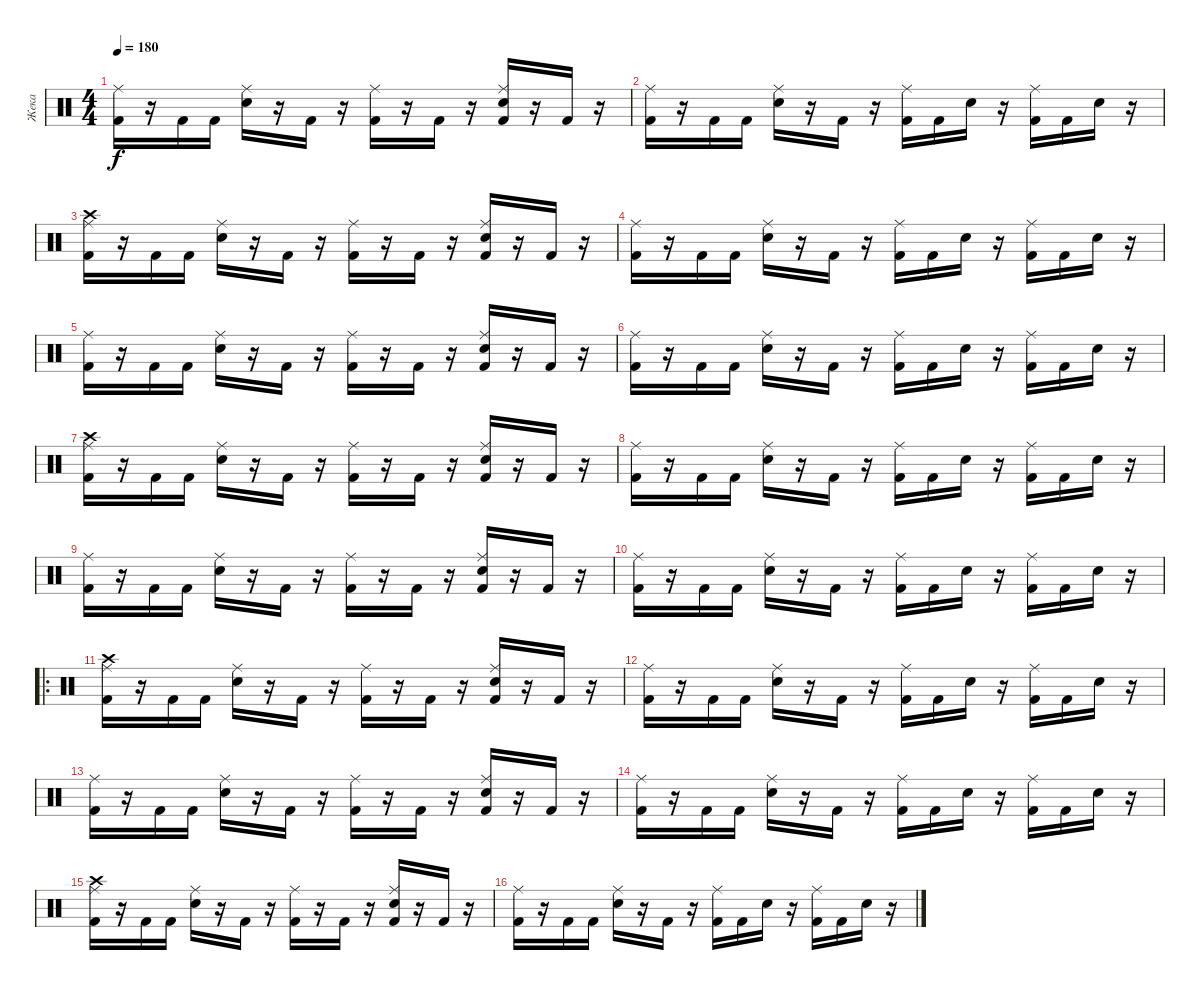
\track ("Жека" "Жека") {instrument percussion}
\staff {score}
\articulation defaults
\ts (4 4)
\tempo 180
\clef neutral
\ks c
("Kick (hit) 2" "Ride (middle)").16{dy f} r.16 "Kick (hit) 2".16 "Kick (hit) 2".16 ("Ride (middle)" "Snare (hit) 2").16 r.16 "Kick (hit) 2".16 r.16 ("Kick (hit) 2" "Ride (middle)").16 r.16 "Kick (hit) 2".16 r.16 ("Kick (hit) 2" "Ride (middle)" "Snare (hit) 2").16 r.16 "Kick (hit) 2".16 r.16 |
("Kick (hit) 2" "Ride (middle)").16 r.16 "Kick (hit) 2".16 "Kick (hit) 2".16 ("Ride (middle)" "Snare (hit) 2").16 r.16 "Kick (hit) 2".16 r.16 ("Kick (hit) 2" "Ride (middle)").16 "Kick (hit) 2".16 "Snare (hit) 2".16 r.16 ("Kick (hit) 2" "Ride (middle)").16 "Kick (hit) 2".16 "Snare (hit) 2".16 r.16 |
("Kick (hit) 2" "Ride (middle)" "Crash high (hit)").16 r.16 "Kick (hit) 2".16 "Kick (hit) 2".16 ("Ride (middle)" "Snare (hit) 2").16 r.16 "Kick (hit) 2".16 r.16 ("Kick (hit) 2" "Ride (middle)").16 r.16 "Kick (hit) 2".16 r.16 ("Kick (hit) 2" "Ride (middle)" "Snare (hit) 2").16 r.16 "Kick (hit) 2".16 r.16 |
("Kick (hit) 2" "Ride (middle)").16 r.16 "Kick (hit) 2".16 "Kick (hit) 2".16 ("Ride (middle)" "Snare (hit) 2").16 r.16 "Kick (hit) 2".16 r.16 ("Kick (hit) 2" "Ride (middle)").16 "Kick (hit) 2".16 "Snare (hit) 2".16 r.16 ("Kick (hit) 2" "Ride (middle)").16 "Kick (hit) 2".16 "Snare (hit) 2".16 r.16 |
("Kick (hit) 2" "Ride (middle)").16 r.16 "Kick (hit) 2".16 "Kick (hit) 2".16 ("Ride (middle)" "Snare (hit) 2").16 r.16 "Kick (hit) 2".16 r.16 ("Kick (hit) 2" "Ride (middle)").16 r.16 "Kick (hit) 2".16 r.16 ("Kick (hit) 2" "Ride (middle)" "Snare (hit) 2").16 r.16 "Kick (hit) 2".16 r.16 |
("Kick (hit) 2" "Ride (middle)").16 r.16 "Kick (hit) 2".16 "Kick (hit) 2".16 ("Ride (middle)" "Snare (hit) 2").16 r.16 "Kick (hit) 2".16 r.16 ("Kick (hit) 2" "Ride (middle)").16 "Kick (hit) 2".16 "Snare (hit) 2".16 r.16 ("Kick (hit) 2" "Ride (middle)").16 "Kick (hit) 2".16 "Snare (hit) 2".16 r.16 |
("Kick (hit) 2" "Ride (middle)" "Crash high (hit)").16 r.16 "Kick (hit) 2".16 "Kick (hit) 2".16 ("Ride (middle)" "Snare (hit) 2").16 r.16 "Kick (hit) 2".16 r.16 ("Kick (hit) 2" "Ride (middle)").16 r.16 "Kick (hit) 2".16 r.16 ("Kick (hit) 2" "Ride (middle)" "Snare (hit) 2").16 r.16 "Kick (hit) 2".16 r.16 |
("Kick (hit) 2" "Ride (middle)").16 r.16 "Kick (hit) 2".16 "Kick (hit) 2".16 ("Ride (middle)" "Snare (hit) 2").16 r.16 "Kick (hit) 2".16 r.16 ("Kick (hit) 2" "Ride (middle)").16 "Kick (hit) 2".16 "Snare (hit) 2".16 r.16 ("Kick (hit) 2" "Ride (middle)").16 "Kick (hit) 2".16 "Snare (hit) 2".16 r.16 |
("Kick (hit) 2" "Ride (middle)").16 r.16 "Kick (hit) 2".16 "Kick (hit) 2".16 ("Ride (middle)" "Snare (hit) 2").16 r.16 "Kick (hit) 2".16 r.16 ("Kick (hit) 2" "Ride (middle)").16 r.16 "Kick (hit) 2".16 r.16 ("Kick (hit) 2" "Ride (middle)" "Snare (hit) 2").16 r.16 "Kick (hit) 2".16 r.16 |
("Kick (hit) 2" "Ride (middle)").16 r.16 "Kick (hit) 2".16 "Kick (hit) 2".16 ("Ride (middle)" "Snare (hit) 2").16 r.16 "Kick (hit) 2".16 r.16 ("Kick (hit) 2" "Ride (middle)").16 "Kick (hit) 2".16 "Snare (hit) 2".16 r.16 ("Kick (hit) 2" "Ride (middle)").16 "Kick (hit) 2".16 "Snare (hit) 2".16 r.16 |
\ro
("Kick (hit) 2" "Ride (middle)" "Crash high (hit)").16 r.16 "Kick (hit) 2".16 "Kick (hit) 2".16 ("Ride (middle)" "Snare (hit) 2").16 r.16 "Kick (hit) 2".16 r.16 ("Kick (hit) 2" "Ride (middle)").16 r.16 "Kick (hit) 2".16 r.16 ("Kick (hit) 2" "Ride (middle)" "Snare (hit) 2").16 r.16 "Kick (hit) 2".16 r.16 |
("Kick (hit) 2" "Ride (middle)").16 r.16 "Kick (hit) 2".16 "Kick (hit) 2".16 ("Ride (middle)" "Snare (hit) 2").16 r.16 "Kick (hit) 2".16 r.16 ("Kick (hit) 2" "Ride (middle)").16 "Kick (hit) 2".16 "Snare (hit) 2".16 r.16 ("Kick (hit) 2" "Ride (middle)").16 "Kick (hit) 2".16 "Snare (hit) 2".16 r.16 |
("Kick (hit) 2" "Ride (middle)").16 r.16 "Kick (hit) 2".16 "Kick (hit) 2".16 ("Ride (middle)" "Snare (hit) 2").16 r.16 "Kick (hit) 2".16 r.16 ("Kick (hit) 2" "Ride (middle)").16 r.16 "Kick (hit) 2".16 r.16 ("Kick (hit) 2" "Ride (middle)" "Snare (hit) 2").16 r.16 "Kick (hit) 2".16 r.16 |
("Kick (hit) 2" "Ride (middle)").16 r.16 "Kick (hit) 2".16 "Kick (hit) 2".16 ("Ride (middle)" "Snare (hit) 2").16 r.16 "Kick (hit) 2".16 r.16 ("Kick (hit) 2" "Ride (middle)").16 "Kick (hit) 2".16 "Snare (hit) 2".16 r.16 ("Kick (hit) 2" "Ride (middle)").16 "Kick (hit) 2".16 "Snare (hit) 2".16 r.16 |
("Kick (hit) 2" "Ride (middle)" "Crash high (hit)").16 r.16 "Kick (hit) 2".16 "Kick (hit) 2".16 ("Ride (middle)" "Snare (hit) 2").16 r.16 "Kick (hit) 2".16 r.16 ("Kick (hit) 2" "Ride (middle)").16 r.16 "Kick (hit) 2".16 r.16 ("Kick (hit) 2" "Ride (middle)" "Snare (hit) 2").16 r.16 "Kick (hit) 2".16 r.16 |
("Kick (hit) 2" "Ride (middle)").16 r.16 "Kick (hit) 2".16 "Kick (hit) 2".16 ("Ride (middle)" "Snare (hit) 2").16 r.16 "Kick (hit) 2".16 r.16 ("Kick (hit) 2" "Ride (middle)").16 "Kick (hit) 2".16 "Snare (hit) 2".16 r.16 ("Kick (hit) 2" "Ride (middle)").16 "Kick (hit) 2".16 "Snare (hit) 2".16 r.16
